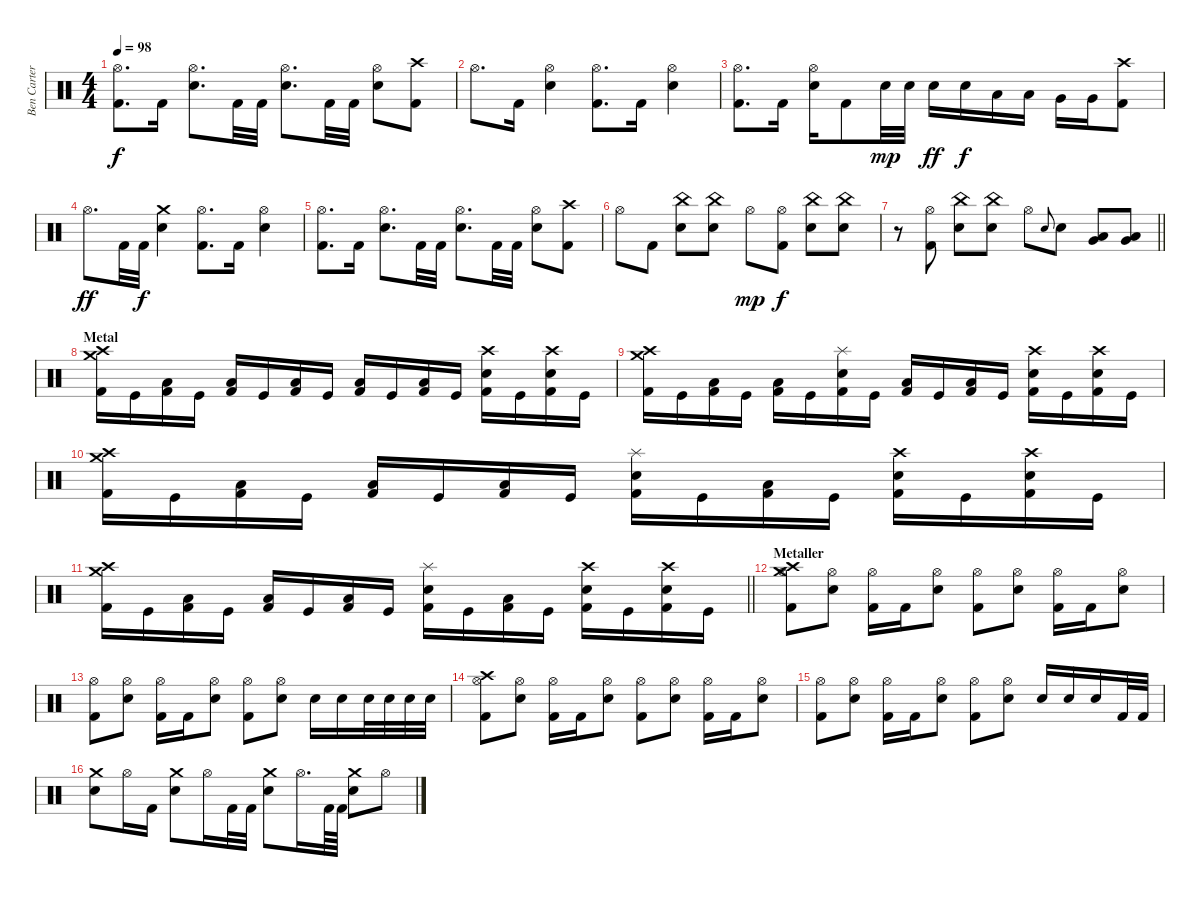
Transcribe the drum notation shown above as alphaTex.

\track ("Ben Carter" "Ben Carter") {instrument percussion}
\staff {score}
\articulation defaults
\ts (4 4)
\tempo 98
\clef neutral
\ks c
("Hi-Hat (open)" "Kick (hit) 2").8{d dy f} "Kick (hit) 2".16 ("Hi-Hat (open)" "Snare (hit) 2").8{d} "Kick (hit) 2".32 "Kick (hit) 2".32 ("Hi-Hat (open)" "Snare (hit) 2").8{d} "Kick (hit) 2".32 "Kick (hit) 2".32 ("Hi-Hat (open)" "Snare (hit) 2").8 ("Crash high (hit)" "Kick (hit) 2").8 |
"Hi-Hat (open)".8{d} "Kick (hit) 2".16 ("Hi-Hat (open)" "Snare (hit) 2").4 ("Hi-Hat (open)" "Kick (hit) 2").8{d} "Kick (hit) 2".16 ("Hi-Hat (open)" "Snare (hit) 2").4 |
("Hi-Hat (open)" "Kick (hit) 2").8{d} "Kick (hit) 2".16 ("Hi-Hat (open)" "Snare (hit) 2").16 "Kick (hit) 2".8 "Snare (hit) 2".32{dy mp} "Snare (hit) 2".32 "Snare (hit) 2".16{dy ff} "Snare (hit) 2".16{dy f} "Low Tom (hit)".16 "Low Tom (hit)".16 "Very Low Tom (hit)".16 "Very Low Tom (hit)".16 ("Crash high (hit)" "Kick (hit) 2").8 |
"Hi-Hat (open)".8{d dy ff} "Kick (hit) 2".32 "Kick (hit) 2".32{dy f} ("Crash medium (hit)" "Snare (hit) 2").4 ("Hi-Hat (open)" "Kick (hit) 2").8{d} "Kick (hit) 2".16 ("Hi-Hat (open)" "Snare (hit) 2").4 |
("Hi-Hat (open)" "Kick (hit) 2").8{d} "Kick (hit) 2".16 ("Hi-Hat (open)" "Snare (hit) 2").8{d} "Kick (hit) 2".32 "Kick (hit) 2".32 ("Hi-Hat (open)" "Snare (hit) 2").8{d} "Kick (hit) 2".32 "Kick (hit) 2".32 ("Hi-Hat (open)" "Snare (hit) 2").8 ("Crash high (hit)" "Kick (hit) 2").8 |
"Hi-Hat (open)".8 "Kick (hit) 2".8 ("China (hit)" "Snare (hit) 2").8 ("China (hit)" "Snare (hit) 2").8 "Hi-Hat (open)".8{dy mp} ("Hi-Hat (open)" "Kick (hit) 2").8{dy f} ("China (hit)" "Snare (hit) 2").8 ("China (hit)" "Snare (hit) 2").8 |
\barLineRight lightlight
r.8 ("Hi-Hat (open)" "Kick (hit) 2").8 ("China (hit)" "Snare (hit) 2").8 ("China (hit)" "Snare (hit) 2").8 "Hi-Hat (open)".8 "Snare (hit) 2".8{gr onbeat} "Snare (hit) 2".8 ("Low Tom (hit)" "Very Low Tom (hit)").8 ("Very Low Tom (hit)" "Low Floor Tom (hit)").8 |
\section ("" "Metal")
("Crash medium (hit)" "Crash high (hit)" "Kick (hit) 2").16 "Kick (hit)".16 ("Low Floor Tom (hit)" "Kick (hit) 2").16 "Kick (hit)".16 ("Low Floor Tom (hit)" "Kick (hit) 2").16 "Kick (hit)".16 ("Low Floor Tom (hit)" "Kick (hit) 2").16 "Kick (hit)".16 ("Low Floor Tom (hit)" "Kick (hit) 2").16 "Kick (hit)".16 ("Low Floor Tom (hit)" "Kick (hit) 2").16 "Kick (hit)".16 ("Crash high (hit)" "Snare (hit) 2" "Kick (hit) 2").16 "Kick (hit)".16 ("Crash high (hit)" "Snare (hit) 2" "Kick (hit) 2").16 "Kick (hit)".16 |
("Crash medium (hit)" "Crash high (hit)" "Kick (hit) 2").16 "Kick (hit)".16 ("Low Floor Tom (hit)" "Kick (hit) 2").16 "Kick (hit)".16 ("Low Floor Tom (hit)" "Kick (hit) 2").16 "Kick (hit)".16 ("Splash (hit)" "Snare (hit) 2" "Kick (hit) 2").16 "Kick (hit)".16 ("Low Floor Tom (hit)" "Kick (hit) 2").16 "Kick (hit)".16 ("Low Floor Tom (hit)" "Kick (hit) 2").16 "Kick (hit)".16 ("Crash high (hit)" "Snare (hit) 2" "Kick (hit) 2").16 "Kick (hit)".16 ("Crash high (hit)" "Snare (hit) 2" "Kick (hit) 2").16 "Kick (hit)".16 |
("Crash medium (hit)" "Crash high (hit)" "Kick (hit) 2").16 "Kick (hit)".16 ("Low Floor Tom (hit)" "Kick (hit) 2").16 "Kick (hit)".16 ("Low Floor Tom (hit)" "Kick (hit) 2").16 "Kick (hit)".16 ("Low Floor Tom (hit)" "Kick (hit) 2").16 "Kick (hit)".16 ("Splash (hit)" "Snare (hit) 2" "Kick (hit) 2").16 "Kick (hit)".16 ("Low Floor Tom (hit)" "Kick (hit) 2").16 "Kick (hit)".16 ("Crash high (hit)" "Snare (hit) 2" "Kick (hit) 2").16 "Kick (hit)".16 ("Crash high (hit)" "Snare (hit) 2" "Kick (hit) 2").16 "Kick (hit)".16 |
\barLineRight lightlight
("Crash medium (hit)" "Crash high (hit)" "Kick (hit) 2").16 "Kick (hit)".16 ("Low Floor Tom (hit)" "Kick (hit) 2").16 "Kick (hit)".16 ("Low Floor Tom (hit)" "Kick (hit) 2").16 "Kick (hit)".16 ("Low Floor Tom (hit)" "Kick (hit) 2").16 "Kick (hit)".16 ("Splash (hit)" "Snare (hit) 2" "Kick (hit) 2").16 "Kick (hit)".16 ("Low Floor Tom (hit)" "Kick (hit) 2").16 "Kick (hit)".16 ("Crash high (hit)" "Snare (hit) 2" "Kick (hit) 2").16 "Kick (hit)".16 ("Crash high (hit)" "Snare (hit) 2" "Kick (hit) 2").16 "Kick (hit)".16 |
\section ("" "Metaller")
("Crash medium (hit)" "Crash high (hit)" "Hi-Hat (open)" "Kick (hit) 2").8 ("Hi-Hat (open)" "Snare (hit) 2").8 ("Hi-Hat (open)" "Kick (hit) 2").16 "Kick (hit) 2".16 ("Hi-Hat (open)" "Snare (hit) 2").8 ("Hi-Hat (open)" "Kick (hit) 2").8 ("Hi-Hat (open)" "Snare (hit) 2").8 ("Hi-Hat (open)" "Kick (hit) 2").16 "Kick (hit) 2".16 ("Hi-Hat (open)" "Snare (hit) 2").8 |
("Hi-Hat (open)" "Kick (hit) 2").8 ("Hi-Hat (open)" "Snare (hit) 2").8 ("Hi-Hat (open)" "Kick (hit) 2").16 "Kick (hit) 2".16 ("Hi-Hat (open)" "Snare (hit) 2").8 ("Hi-Hat (open)" "Kick (hit) 2").8 ("Hi-Hat (open)" "Snare (hit) 2").8 "Snare (hit) 2".16 "Snare (hit) 2".16 "Snare (hit) 2".32 "Snare (hit) 2".32 "Snare (hit) 2".32 "Snare (hit) 2".32 |
("Crash high (hit)" "Hi-Hat (open)" "Kick (hit) 2").8 ("Hi-Hat (open)" "Snare (hit) 2").8 ("Hi-Hat (open)" "Kick (hit) 2").16 "Kick (hit) 2".16 ("Hi-Hat (open)" "Snare (hit) 2").8 ("Hi-Hat (open)" "Kick (hit) 2").8 ("Hi-Hat (open)" "Snare (hit) 2").8 ("Hi-Hat (open)" "Kick (hit) 2").16 "Kick (hit) 2".16 ("Hi-Hat (open)" "Snare (hit) 2").8 |
("Hi-Hat (open)" "Kick (hit) 2").8 ("Hi-Hat (open)" "Snare (hit) 2").8 ("Hi-Hat (open)" "Kick (hit) 2").16 "Kick (hit) 2".16 ("Hi-Hat (open)" "Snare (hit) 2").8 ("Hi-Hat (open)" "Kick (hit) 2").8 ("Hi-Hat (open)" "Snare (hit) 2").8 "Snare (hit) 2".16 "Snare (hit) 2".16 "Snare (hit) 2".16 "Kick (hit) 2".32 "Kick (hit) 2".32 |
("Crash medium (hit)" "Snare (hit) 2").8 "Hi-Hat (open)".16 "Kick (hit) 2".16 ("Crash medium (hit)" "Snare (hit) 2").8 "Hi-Hat (open)".16 "Kick (hit) 2".32 "Kick (hit) 2".32 ("Crash medium (hit)" "Snare (hit) 2").8 "Hi-Hat (open)".16{d} "Kick (hit) 2".64 "Kick (hit) 2".64 ("Crash medium (hit)" "Snare (hit) 2").8 "Hi-Hat (open)".8
